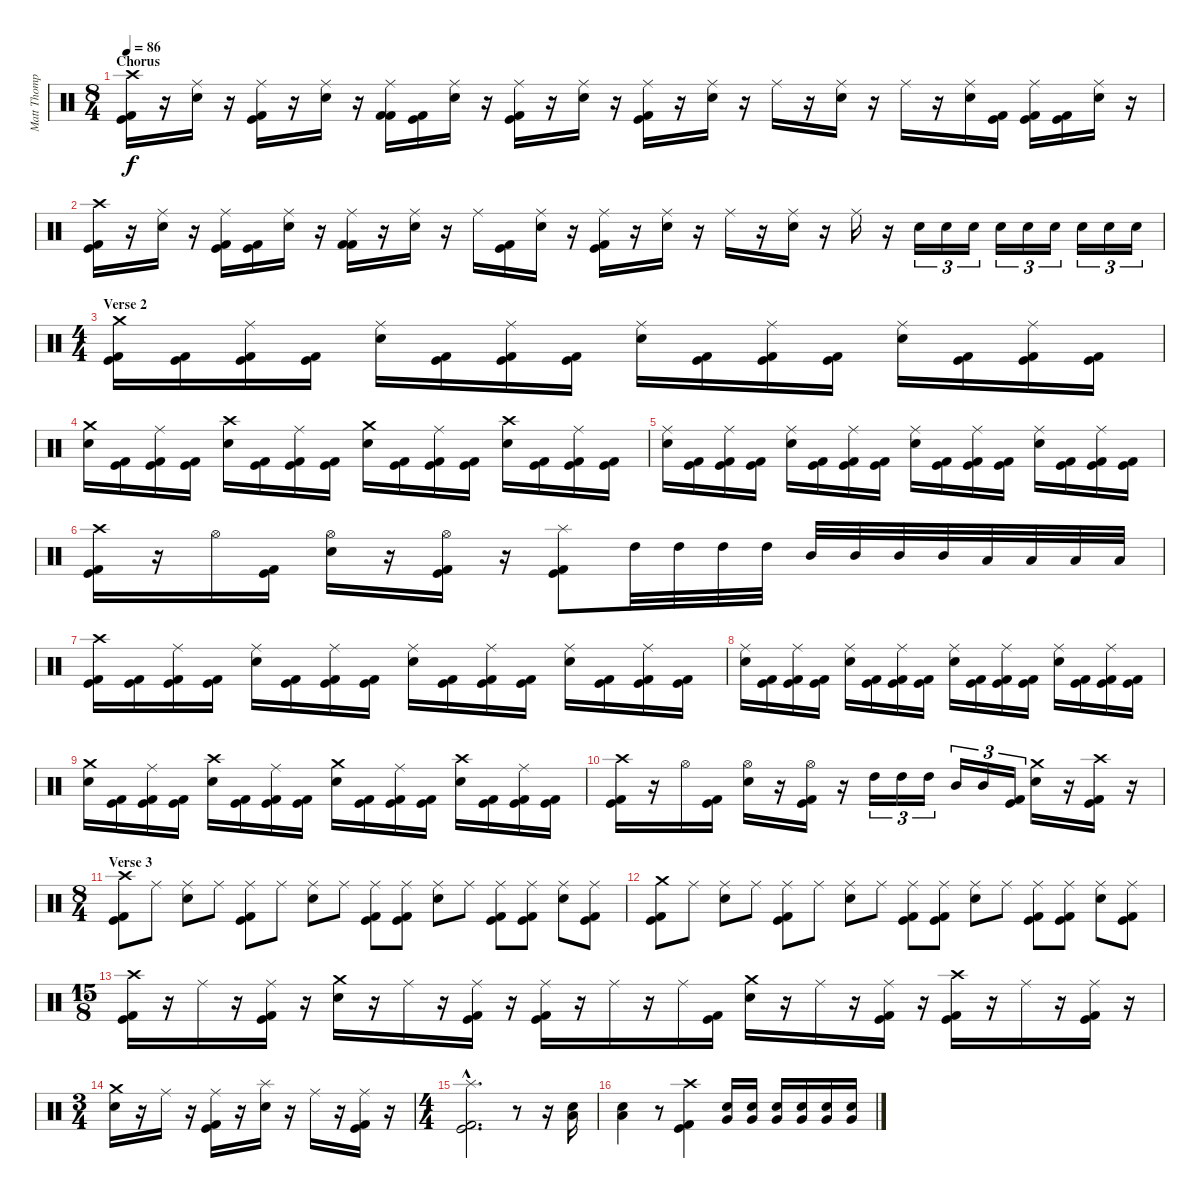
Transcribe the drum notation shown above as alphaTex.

\track ("Matt Thompson" "Matt Thomp") {instrument percussion}
\staff {score}
\articulation defaults
\ts (8 4)
\section ("" "Chorus")
\tempo 86
\clef neutral
\ks c
("Crash high (hit)" "Kick (hit)" "Kick (hit) 2").16{dy f} r.16 ("Ride (middle)" "Snare (hit) 2").16 r.16 ("Ride (middle)" "Kick (hit)" "Kick (hit) 2").16 r.16 ("Ride (middle)" "Snare (hit) 2").16 r.16 ("Ride (middle)" "Kick (hit) 2" "Kick (hit) 2").16 ("Kick (hit)" "Kick (hit) 2").16 ("Ride (middle)" "Snare (hit) 2").16 r.16 ("Ride (middle)" "Kick (hit)" "Kick (hit) 2").16 r.16 ("Ride (middle)" "Snare (hit) 2").16 r.16 ("Ride (middle)" "Kick (hit)" "Kick (hit) 2").16 r.16 ("Ride (middle)" "Snare (hit) 2").16 r.16 "Ride (middle)".16 r.16 ("Ride (middle)" "Snare (hit) 2").16 r.16 "Ride (middle)".16 r.16 ("Ride (middle)" "Snare (hit) 2").16 ("Kick (hit)" "Kick (hit) 2").16 ("Ride (middle)" "Kick (hit)" "Kick (hit) 2").16 ("Kick (hit)" "Kick (hit) 2").16 ("Ride (middle)" "Snare (hit) 2").16 r.16 |
("Crash high (hit)" "Kick (hit)" "Kick (hit) 2").16 r.16 ("Ride (middle)" "Snare (hit) 2").16 r.16 ("Ride (middle)" "Kick (hit)" "Kick (hit) 2").16 ("Kick (hit)" "Kick (hit) 2").16 ("Ride (middle)" "Snare (hit) 2").16 r.16 ("Ride (middle)" "Kick (hit) 2" "Kick (hit) 2").16 r.16 ("Ride (middle)" "Snare (hit) 2").16 r.16 "Ride (middle)".16 ("Kick (hit)" "Kick (hit) 2").16 ("Ride (middle)" "Snare (hit) 2").16 r.16 ("Ride (middle)" "Kick (hit)" "Kick (hit) 2").16 r.16 ("Ride (middle)" "Snare (hit) 2").16 r.16 "Ride (middle)".16 r.16 ("Ride (middle)" "Snare (hit) 2").16 r.16 "Ride (middle)".16 r.16 "Snare (hit) 2".16{tu (3 2)} "Snare (hit) 2".16{tu (3 2)} "Snare (hit) 2".16{tu (3 2)} "Snare (hit) 2".16{tu (3 2)} "Snare (hit) 2".16{tu (3 2)} "Snare (hit) 2".16{tu (3 2)} "Snare (hit) 2".16{tu (3 2)} "Snare (hit) 2".16{tu (3 2)} "Snare (hit) 2".16{tu (3 2)} |
\ts (4 4)
\section ("" "Verse 2")
("Crash medium (hit)" "Kick (hit)" "Kick (hit) 2").16 ("Kick (hit)" "Kick (hit) 2").16 ("Ride (middle)" "Kick (hit)" "Kick (hit) 2").16 ("Kick (hit)" "Kick (hit) 2").16 ("Ride (middle)" "Snare (hit) 2").16 ("Kick (hit)" "Kick (hit) 2").16 ("Ride (middle)" "Kick (hit)" "Kick (hit) 2").16 ("Kick (hit)" "Kick (hit) 2").16 ("Ride (middle)" "Snare (hit) 2").16 ("Kick (hit)" "Kick (hit) 2").16 ("Ride (middle)" "Kick (hit)" "Kick (hit) 2").16 ("Kick (hit)" "Kick (hit) 2").16 ("Ride (middle)" "Snare (hit) 2").16 ("Kick (hit)" "Kick (hit) 2").16 ("Ride (middle)" "Kick (hit)" "Kick (hit) 2").16 ("Kick (hit)" "Kick (hit) 2").16 |
("Crash medium (hit)" "Snare (hit) 2").16 ("Kick (hit)" "Kick (hit) 2").16 ("Ride (middle)" "Kick (hit)" "Kick (hit) 2").16 ("Kick (hit)" "Kick (hit) 2").16 ("Crash high (hit)" "Snare (hit) 2").16 ("Kick (hit)" "Kick (hit) 2").16 ("Ride (middle)" "Kick (hit)" "Kick (hit) 2").16 ("Kick (hit)" "Kick (hit) 2").16 ("Crash medium (hit)" "Snare (hit) 2").16 ("Kick (hit)" "Kick (hit) 2").16 ("Ride (middle)" "Kick (hit)" "Kick (hit) 2").16 ("Kick (hit)" "Kick (hit) 2").16 ("Crash high (hit)" "Snare (hit) 2").16 ("Kick (hit)" "Kick (hit) 2").16 ("Ride (middle)" "Kick (hit)" "Kick (hit) 2").16 ("Kick (hit)" "Kick (hit) 2").16 |
("Ride (middle)" "Snare (hit) 2").16 ("Kick (hit)" "Kick (hit) 2").16 ("Ride (middle)" "Kick (hit)" "Kick (hit) 2").16 ("Kick (hit)" "Kick (hit) 2").16 ("Ride (middle)" "Snare (hit) 2").16 ("Kick (hit)" "Kick (hit) 2").16 ("Ride (middle)" "Kick (hit)" "Kick (hit) 2").16 ("Kick (hit)" "Kick (hit) 2").16 ("Ride (middle)" "Snare (hit) 2").16 ("Kick (hit)" "Kick (hit) 2").16 ("Ride (middle)" "Kick (hit)" "Kick (hit) 2").16 ("Kick (hit)" "Kick (hit) 2").16 ("Ride (middle)" "Snare (hit) 2").16 ("Kick (hit)" "Kick (hit) 2").16 ("Ride (middle)" "Kick (hit)" "Kick (hit) 2").16 ("Kick (hit)" "Kick (hit) 2").16 |
("Crash high (hit)" "Kick (hit)" "Kick (hit) 2").16 r.16 "Hi-Hat (open)".16 ("Kick (hit)" "Kick (hit) 2").16 ("Hi-Hat (open)" "Snare (hit) 2").16 r.16 ("Hi-Hat (open)" "Kick (hit)" "Kick (hit) 2").16 r.16 ("Splash (hit)" "Kick (hit)" "Kick (hit) 2").8 "High Tom (hit)".32 "High Tom (hit)".32 "High Tom (hit)".32 "High Tom (hit)".32 "Mid Tom (hit)".32 "Mid Tom (hit)".32 "Mid Tom (hit)".32 "Mid Tom (hit)".32 "Low Tom (hit)".32 "Low Tom (hit)".32 "Low Tom (hit)".32 "Low Tom (hit)".32 |
("Crash high (hit)" "Kick (hit)" "Kick (hit) 2").16 ("Kick (hit)" "Kick (hit) 2").16 ("Ride (middle)" "Kick (hit)" "Kick (hit) 2").16 ("Kick (hit)" "Kick (hit) 2").16 ("Ride (middle)" "Snare (hit) 2").16 ("Kick (hit)" "Kick (hit) 2").16 ("Ride (middle)" "Kick (hit)" "Kick (hit) 2").16 ("Kick (hit)" "Kick (hit) 2").16 ("Ride (middle)" "Snare (hit) 2").16 ("Kick (hit)" "Kick (hit) 2").16 ("Ride (middle)" "Kick (hit)" "Kick (hit) 2").16 ("Kick (hit)" "Kick (hit) 2").16 ("Ride (middle)" "Snare (hit) 2").16 ("Kick (hit)" "Kick (hit) 2").16 ("Ride (middle)" "Kick (hit)" "Kick (hit) 2").16 ("Kick (hit)" "Kick (hit) 2").16 |
("Ride (middle)" "Snare (hit) 2").16 ("Kick (hit)" "Kick (hit) 2").16 ("Ride (middle)" "Kick (hit)" "Kick (hit) 2").16 ("Kick (hit)" "Kick (hit) 2").16 ("Ride (middle)" "Snare (hit) 2").16 ("Kick (hit)" "Kick (hit) 2").16 ("Ride (middle)" "Kick (hit)" "Kick (hit) 2").16 ("Kick (hit)" "Kick (hit) 2").16 ("Ride (middle)" "Snare (hit) 2").16 ("Kick (hit)" "Kick (hit) 2").16 ("Ride (middle)" "Kick (hit)" "Kick (hit) 2").16 ("Kick (hit)" "Kick (hit) 2").16 ("Ride (middle)" "Snare (hit) 2").16 ("Kick (hit)" "Kick (hit) 2").16 ("Ride (middle)" "Kick (hit)" "Kick (hit) 2").16 ("Kick (hit)" "Kick (hit) 2").16 |
("Crash medium (hit)" "Snare (hit) 2").16 ("Kick (hit)" "Kick (hit) 2").16 ("Ride (middle)" "Kick (hit)" "Kick (hit) 2").16 ("Kick (hit)" "Kick (hit) 2").16 ("Crash high (hit)" "Snare (hit) 2").16 ("Kick (hit)" "Kick (hit) 2").16 ("Ride (middle)" "Kick (hit)" "Kick (hit) 2").16 ("Kick (hit)" "Kick (hit) 2").16 ("Crash medium (hit)" "Snare (hit) 2").16 ("Kick (hit)" "Kick (hit) 2").16 ("Ride (middle)" "Kick (hit)" "Kick (hit) 2").16 ("Kick (hit)" "Kick (hit) 2").16 ("Crash high (hit)" "Snare (hit) 2").16 ("Kick (hit)" "Kick (hit) 2").16 ("Ride (middle)" "Kick (hit)" "Kick (hit) 2").16 ("Kick (hit)" "Kick (hit) 2").16 |
("Crash high (hit)" "Kick (hit)" "Kick (hit) 2").16 r.16 "Hi-Hat (open)".16 ("Kick (hit)" "Kick (hit) 2").16 ("Hi-Hat (open)" "Snare (hit) 2").16 r.16 ("Hi-Hat (open)" "Kick (hit)" "Kick (hit) 2").16 r.16 "High Tom (hit)".16{tu (3 2)} "High Tom (hit)".16{tu (3 2)} "High Tom (hit)".16{tu (3 2)} "Mid Tom (hit)".16{tu (3 2)} "Mid Tom (hit)".16{tu (3 2)} ("Kick (hit)" "Kick (hit) 2").16{tu (3 2)} ("Crash medium (hit)" "Snare (hit) 2").16 r.16 ("Crash high (hit)" "Kick (hit)" "Kick (hit) 2").16 r.16 |
\ts (8 4)
\section ("" "Verse 3")
("Crash high (hit)" "Kick (hit)" "Kick (hit) 2").8 "Ride (middle)".8 ("Ride (middle)" "Snare (hit) 2").8 "Ride (middle)".8 ("Ride (middle)" "Kick (hit)" "Kick (hit) 2").8 "Ride (middle)".8 ("Ride (middle)" "Snare (hit) 2").8 "Ride (middle)".8 ("Ride (middle)" "Kick (hit)" "Kick (hit) 2").8 ("Ride (middle)" "Kick (hit)" "Kick (hit) 2").8 ("Ride (middle)" "Snare (hit) 2").8 "Ride (middle)".8 ("Ride (middle)" "Kick (hit)" "Kick (hit) 2").8 ("Ride (middle)" "Kick (hit)" "Kick (hit) 2").8 ("Ride (middle)" "Snare (hit) 2").8 ("Ride (middle)" "Kick (hit)" "Kick (hit) 2").8 |
("Crash medium (hit)" "Kick (hit)" "Kick (hit) 2").8 "Ride (middle)".8 ("Ride (middle)" "Snare (hit) 2").8 "Ride (middle)".8 ("Ride (middle)" "Kick (hit)" "Kick (hit) 2").8 "Ride (middle)".8 ("Ride (middle)" "Snare (hit) 2").8 "Ride (middle)".8 ("Ride (middle)" "Kick (hit)" "Kick (hit) 2").8 ("Ride (middle)" "Kick (hit)" "Kick (hit) 2").8 ("Ride (middle)" "Snare (hit) 2").8 "Ride (middle)".8 ("Ride (middle)" "Kick (hit)" "Kick (hit) 2").8 ("Ride (middle)" "Kick (hit)" "Kick (hit) 2").8 ("Ride (middle)" "Snare (hit) 2").8 ("Ride (middle)" "Kick (hit)" "Kick (hit) 2").8 |
\ts (15 8)
("Crash high (hit)" "Kick (hit)" "Kick (hit) 2").16 r.16 "Ride (middle)".16 r.16 ("Ride (middle)" "Kick (hit)" "Kick (hit) 2").16 r.16 ("Crash medium (hit)" "Snare (hit) 2").16 r.16 "Ride (middle)".16 r.16 ("Ride (middle)" "Kick (hit)" "Kick (hit) 2").16 r.16 ("Ride (middle)" "Kick (hit)" "Kick (hit) 2").16 r.16 "Ride (middle)".16 r.16 "Ride (middle)".16 ("Kick (hit)" "Kick (hit) 2").16 ("Crash medium (hit)" "Snare (hit) 2").16 r.16 "Ride (middle)".16 r.16 ("Ride (middle)" "Kick (hit)" "Kick (hit) 2").16 r.16 ("Crash high (hit)" "Kick (hit)" "Kick (hit) 2").16 r.16 "Ride (middle)".16 r.16 ("Ride (middle)" "Kick (hit)" "Kick (hit) 2").16 r.16 |
\ts (3 4)
("Crash medium (hit)" "Snare (hit) 2").16 r.16 "Ride (middle)".16 r.16 ("Ride (middle)" "Kick (hit)" "Kick (hit) 2").16 r.16 ("Splash (hit)" "Snare (hit) 2").16 r.16 "Ride (middle)".16 r.16 ("Ride (middle)" "Kick (hit)" "Kick (hit) 2").16 r.16 |
\ts (4 4)
("Splash (hit)"{hac} "Kick (hit)"{hac} "Kick (hit) 2"{hac}).2{d} r.8 r.16 ("Low Tom (hit)" "Snare (hit) 2").16 |
("Low Tom (hit)" "Snare (hit) 2").4 r.8 ("Crash high (hit)" "Kick (hit)" "Kick (hit) 2").4 ("Very Low Tom (hit)" "Snare (hit) 2").16 ("Very Low Tom (hit)" "Snare (hit) 2").16 ("Very Low Tom (hit)" "Snare (hit) 2").16 ("Very Low Tom (hit)" "Snare (hit) 2").16 ("Very Low Tom (hit)" "Snare (hit) 2").16 ("Very Low Tom (hit)" "Snare (hit) 2").16
